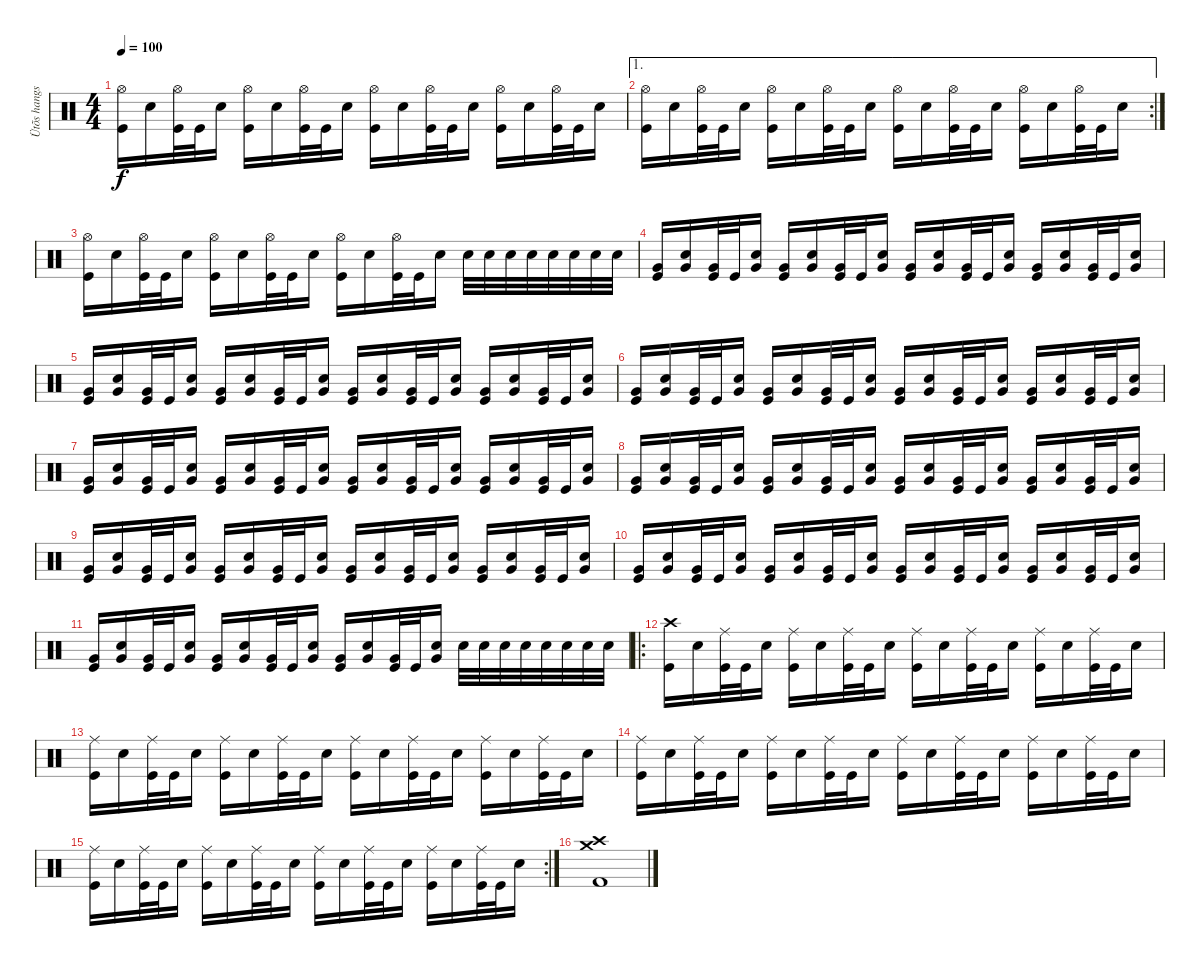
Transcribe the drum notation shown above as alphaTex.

\track ("Ütõs hangszer" "Ütõs hangs") {instrument percussion}
\staff {score}
\articulation defaults
\ts (4 4)
\tempo 100
\clef neutral
\ks c
("Hi-Hat (open)" "Kick (hit)").16{dy f} "Electric Snare (hit)".16 ("Hi-Hat (open)" "Kick (hit)").32 "Kick (hit)".32 "Electric Snare (hit)".16 ("Hi-Hat (open)" "Kick (hit)").16 "Electric Snare (hit)".16 ("Hi-Hat (open)" "Kick (hit)").32 "Kick (hit)".32 "Electric Snare (hit)".16 ("Hi-Hat (open)" "Kick (hit)").16 "Electric Snare (hit)".16 ("Hi-Hat (open)" "Kick (hit)").32 "Kick (hit)".32 "Electric Snare (hit)".16 ("Hi-Hat (open)" "Kick (hit)").16 "Electric Snare (hit)".16 ("Hi-Hat (open)" "Kick (hit)").32 "Kick (hit)".32 "Electric Snare (hit)".16 |
\ae 1
\rc 2
("Hi-Hat (open)" "Kick (hit)").16 "Electric Snare (hit)".16 ("Hi-Hat (open)" "Kick (hit)").32 "Kick (hit)".32 "Electric Snare (hit)".16 ("Hi-Hat (open)" "Kick (hit)").16 "Electric Snare (hit)".16 ("Hi-Hat (open)" "Kick (hit)").32 "Kick (hit)".32 "Electric Snare (hit)".16 ("Hi-Hat (open)" "Kick (hit)").16 "Electric Snare (hit)".16 ("Hi-Hat (open)" "Kick (hit)").32 "Kick (hit)".32 "Electric Snare (hit)".16 ("Hi-Hat (open)" "Kick (hit)").16 "Electric Snare (hit)".16 ("Hi-Hat (open)" "Kick (hit)").32 "Kick (hit)".32 "Electric Snare (hit)".16 |
("Hi-Hat (open)" "Kick (hit)").16 "Electric Snare (hit)".16 ("Hi-Hat (open)" "Kick (hit)").32 "Kick (hit)".32 "Electric Snare (hit)".16 ("Hi-Hat (open)" "Kick (hit)").16 "Electric Snare (hit)".16 ("Hi-Hat (open)" "Kick (hit)").32 "Kick (hit)".32 "Electric Snare (hit)".16 ("Hi-Hat (open)" "Kick (hit)").16 "Electric Snare (hit)".16 ("Hi-Hat (open)" "Kick (hit)").32 "Kick (hit)".32 "Electric Snare (hit)".16 "Electric Snare (hit)".32 "Electric Snare (hit)".32 "Electric Snare (hit)".32 "Electric Snare (hit)".32 "Electric Snare (hit)".32 "Electric Snare (hit)".32 "Electric Snare (hit)".32 "Electric Snare (hit)".32 |
("Very Low Tom (hit)" "Kick (hit)").16 ("Very Low Tom (hit)" "Electric Snare (hit)").16 ("Very Low Tom (hit)" "Kick (hit)").32 "Kick (hit)".32 ("Very Low Tom (hit)" "Electric Snare (hit)").16 ("Very Low Tom (hit)" "Kick (hit)").16 ("Very Low Tom (hit)" "Electric Snare (hit)").16 ("Very Low Tom (hit)" "Kick (hit)").32 "Kick (hit)".32 ("Very Low Tom (hit)" "Electric Snare (hit)").16 ("Very Low Tom (hit)" "Kick (hit)").16 ("Very Low Tom (hit)" "Electric Snare (hit)").16 ("Very Low Tom (hit)" "Kick (hit)").32 "Kick (hit)".32 ("Very Low Tom (hit)" "Electric Snare (hit)").16 ("Very Low Tom (hit)" "Kick (hit)").16 ("Very Low Tom (hit)" "Electric Snare (hit)").16 ("Very Low Tom (hit)" "Kick (hit)").32 "Kick (hit)".32 ("Very Low Tom (hit)" "Electric Snare (hit)").16 |
("Very Low Tom (hit)" "Kick (hit)").16 ("Very Low Tom (hit)" "Electric Snare (hit)").16 ("Very Low Tom (hit)" "Kick (hit)").32 "Kick (hit)".32 ("Very Low Tom (hit)" "Electric Snare (hit)").16 ("Very Low Tom (hit)" "Kick (hit)").16 ("Very Low Tom (hit)" "Electric Snare (hit)").16 ("Very Low Tom (hit)" "Kick (hit)").32 "Kick (hit)".32 ("Very Low Tom (hit)" "Electric Snare (hit)").16 ("Very Low Tom (hit)" "Kick (hit)").16 ("Very Low Tom (hit)" "Electric Snare (hit)").16 ("Very Low Tom (hit)" "Kick (hit)").32 "Kick (hit)".32 ("Very Low Tom (hit)" "Electric Snare (hit)").16 ("Very Low Tom (hit)" "Kick (hit)").16 ("Very Low Tom (hit)" "Electric Snare (hit)").16 ("Very Low Tom (hit)" "Kick (hit)").32 "Kick (hit)".32 ("Very Low Tom (hit)" "Electric Snare (hit)").16 |
("Very Low Tom (hit)" "Kick (hit)").16 ("Very Low Tom (hit)" "Electric Snare (hit)").16 ("Very Low Tom (hit)" "Kick (hit)").32 "Kick (hit)".32 ("Very Low Tom (hit)" "Electric Snare (hit)").16 ("Very Low Tom (hit)" "Kick (hit)").16 ("Very Low Tom (hit)" "Electric Snare (hit)").16 ("Very Low Tom (hit)" "Kick (hit)").32 "Kick (hit)".32 ("Very Low Tom (hit)" "Electric Snare (hit)").16 ("Very Low Tom (hit)" "Kick (hit)").16 ("Very Low Tom (hit)" "Electric Snare (hit)").16 ("Very Low Tom (hit)" "Kick (hit)").32 "Kick (hit)".32 ("Very Low Tom (hit)" "Electric Snare (hit)").16 ("Very Low Tom (hit)" "Kick (hit)").16 ("Very Low Tom (hit)" "Electric Snare (hit)").16 ("Very Low Tom (hit)" "Kick (hit)").32 "Kick (hit)".32 ("Very Low Tom (hit)" "Electric Snare (hit)").16 |
("Very Low Tom (hit)" "Kick (hit)").16 ("Very Low Tom (hit)" "Electric Snare (hit)").16 ("Very Low Tom (hit)" "Kick (hit)").32 "Kick (hit)".32 ("Very Low Tom (hit)" "Electric Snare (hit)").16 ("Very Low Tom (hit)" "Kick (hit)").16 ("Very Low Tom (hit)" "Electric Snare (hit)").16 ("Very Low Tom (hit)" "Kick (hit)").32 "Kick (hit)".32 ("Very Low Tom (hit)" "Electric Snare (hit)").16 ("Very Low Tom (hit)" "Kick (hit)").16 ("Very Low Tom (hit)" "Electric Snare (hit)").16 ("Very Low Tom (hit)" "Kick (hit)").32 "Kick (hit)".32 ("Very Low Tom (hit)" "Electric Snare (hit)").16 ("Very Low Tom (hit)" "Kick (hit)").16 ("Very Low Tom (hit)" "Electric Snare (hit)").16 ("Very Low Tom (hit)" "Kick (hit)").32 "Kick (hit)".32 ("Very Low Tom (hit)" "Electric Snare (hit)").16 |
("Very Low Tom (hit)" "Kick (hit)").16 ("Very Low Tom (hit)" "Electric Snare (hit)").16 ("Very Low Tom (hit)" "Kick (hit)").32 "Kick (hit)".32 ("Very Low Tom (hit)" "Electric Snare (hit)").16 ("Very Low Tom (hit)" "Kick (hit)").16 ("Very Low Tom (hit)" "Electric Snare (hit)").16 ("Very Low Tom (hit)" "Kick (hit)").32 "Kick (hit)".32 ("Very Low Tom (hit)" "Electric Snare (hit)").16 ("Very Low Tom (hit)" "Kick (hit)").16 ("Very Low Tom (hit)" "Electric Snare (hit)").16 ("Very Low Tom (hit)" "Kick (hit)").32 "Kick (hit)".32 ("Very Low Tom (hit)" "Electric Snare (hit)").16 ("Very Low Tom (hit)" "Kick (hit)").16 ("Very Low Tom (hit)" "Electric Snare (hit)").16 ("Very Low Tom (hit)" "Kick (hit)").32 "Kick (hit)".32 ("Very Low Tom (hit)" "Electric Snare (hit)").16 |
("Very Low Tom (hit)" "Kick (hit)").16 ("Very Low Tom (hit)" "Electric Snare (hit)").16 ("Very Low Tom (hit)" "Kick (hit)").32 "Kick (hit)".32 ("Very Low Tom (hit)" "Electric Snare (hit)").16 ("Very Low Tom (hit)" "Kick (hit)").16 ("Very Low Tom (hit)" "Electric Snare (hit)").16 ("Very Low Tom (hit)" "Kick (hit)").32 "Kick (hit)".32 ("Very Low Tom (hit)" "Electric Snare (hit)").16 ("Very Low Tom (hit)" "Kick (hit)").16 ("Very Low Tom (hit)" "Electric Snare (hit)").16 ("Very Low Tom (hit)" "Kick (hit)").32 "Kick (hit)".32 ("Very Low Tom (hit)" "Electric Snare (hit)").16 ("Very Low Tom (hit)" "Kick (hit)").16 ("Very Low Tom (hit)" "Electric Snare (hit)").16 ("Very Low Tom (hit)" "Kick (hit)").32 "Kick (hit)".32 ("Very Low Tom (hit)" "Electric Snare (hit)").16 |
("Very Low Tom (hit)" "Kick (hit)").16 ("Very Low Tom (hit)" "Electric Snare (hit)").16 ("Very Low Tom (hit)" "Kick (hit)").32 "Kick (hit)".32 ("Very Low Tom (hit)" "Electric Snare (hit)").16 ("Very Low Tom (hit)" "Kick (hit)").16 ("Very Low Tom (hit)" "Electric Snare (hit)").16 ("Very Low Tom (hit)" "Kick (hit)").32 "Kick (hit)".32 ("Very Low Tom (hit)" "Electric Snare (hit)").16 ("Very Low Tom (hit)" "Kick (hit)").16 ("Very Low Tom (hit)" "Electric Snare (hit)").16 ("Very Low Tom (hit)" "Kick (hit)").32 "Kick (hit)".32 ("Very Low Tom (hit)" "Electric Snare (hit)").16 ("Very Low Tom (hit)" "Kick (hit)").16 ("Very Low Tom (hit)" "Electric Snare (hit)").16 ("Very Low Tom (hit)" "Kick (hit)").32 "Kick (hit)".32 ("Very Low Tom (hit)" "Electric Snare (hit)").16 |
("Very Low Tom (hit)" "Kick (hit)").16 ("Very Low Tom (hit)" "Electric Snare (hit)").16 ("Very Low Tom (hit)" "Kick (hit)").32 "Kick (hit)".32 ("Very Low Tom (hit)" "Electric Snare (hit)").16 ("Very Low Tom (hit)" "Kick (hit)").16 ("Very Low Tom (hit)" "Electric Snare (hit)").16 ("Very Low Tom (hit)" "Kick (hit)").32 "Kick (hit)".32 ("Very Low Tom (hit)" "Electric Snare (hit)").16 ("Very Low Tom (hit)" "Kick (hit)").16 ("Very Low Tom (hit)" "Electric Snare (hit)").16 ("Very Low Tom (hit)" "Kick (hit)").32 "Kick (hit)".32 ("Very Low Tom (hit)" "Electric Snare (hit)").16 "Electric Snare (hit)".32 "Electric Snare (hit)".32 "Electric Snare (hit)".32 "Electric Snare (hit)".32 "Electric Snare (hit)".32 "Electric Snare (hit)".32 "Electric Snare (hit)".32 "Electric Snare (hit)".32 |
\ro
("Crash high (hit)" "Kick (hit)").16 "Electric Snare (hit)".16 ("Ride (middle)" "Kick (hit)").32 "Kick (hit)".32 "Electric Snare (hit)".16 ("Ride (middle)" "Kick (hit)").16 "Electric Snare (hit)".16 ("Ride (middle)" "Kick (hit)").32 "Kick (hit)".32 "Electric Snare (hit)".16 ("Ride (middle)" "Kick (hit)").16 "Electric Snare (hit)".16 ("Ride (middle)" "Kick (hit)").32 "Kick (hit)".32 "Electric Snare (hit)".16 ("Ride (middle)" "Kick (hit)").16 "Electric Snare (hit)".16 ("Ride (middle)" "Kick (hit)").32 "Kick (hit)".32 "Electric Snare (hit)".16 |
("Ride (middle)" "Kick (hit)").16 "Electric Snare (hit)".16 ("Ride (middle)" "Kick (hit)").32 "Kick (hit)".32 "Electric Snare (hit)".16 ("Ride (middle)" "Kick (hit)").16 "Electric Snare (hit)".16 ("Ride (middle)" "Kick (hit)").32 "Kick (hit)".32 "Electric Snare (hit)".16 ("Ride (middle)" "Kick (hit)").16 "Electric Snare (hit)".16 ("Ride (middle)" "Kick (hit)").32 "Kick (hit)".32 "Electric Snare (hit)".16 ("Ride (middle)" "Kick (hit)").16 "Electric Snare (hit)".16 ("Ride (middle)" "Kick (hit)").32 "Kick (hit)".32 "Electric Snare (hit)".16 |
("Ride (middle)" "Kick (hit)").16 "Electric Snare (hit)".16 ("Ride (middle)" "Kick (hit)").32 "Kick (hit)".32 "Electric Snare (hit)".16 ("Ride (middle)" "Kick (hit)").16 "Electric Snare (hit)".16 ("Ride (middle)" "Kick (hit)").32 "Kick (hit)".32 "Electric Snare (hit)".16 ("Ride (middle)" "Kick (hit)").16 "Electric Snare (hit)".16 ("Ride (middle)" "Kick (hit)").32 "Kick (hit)".32 "Electric Snare (hit)".16 ("Ride (middle)" "Kick (hit)").16 "Electric Snare (hit)".16 ("Ride (middle)" "Kick (hit)").32 "Kick (hit)".32 "Electric Snare (hit)".16 |
\rc 2
("Ride (middle)" "Kick (hit)").16 "Electric Snare (hit)".16 ("Ride (middle)" "Kick (hit)").32 "Kick (hit)".32 "Electric Snare (hit)".16 ("Ride (middle)" "Kick (hit)").16 "Electric Snare (hit)".16 ("Ride (middle)" "Kick (hit)").32 "Kick (hit)".32 "Electric Snare (hit)".16 ("Ride (middle)" "Kick (hit)").16 "Electric Snare (hit)".16 ("Ride (middle)" "Kick (hit)").32 "Kick (hit)".32 "Electric Snare (hit)".16 ("Ride (middle)" "Kick (hit)").16 "Electric Snare (hit)".16 ("Ride (middle)" "Kick (hit)").32 "Kick (hit)".32 "Electric Snare (hit)".16 |
("Crash medium (hit)" "Crash high (hit)" "Kick (hit) 2").1
